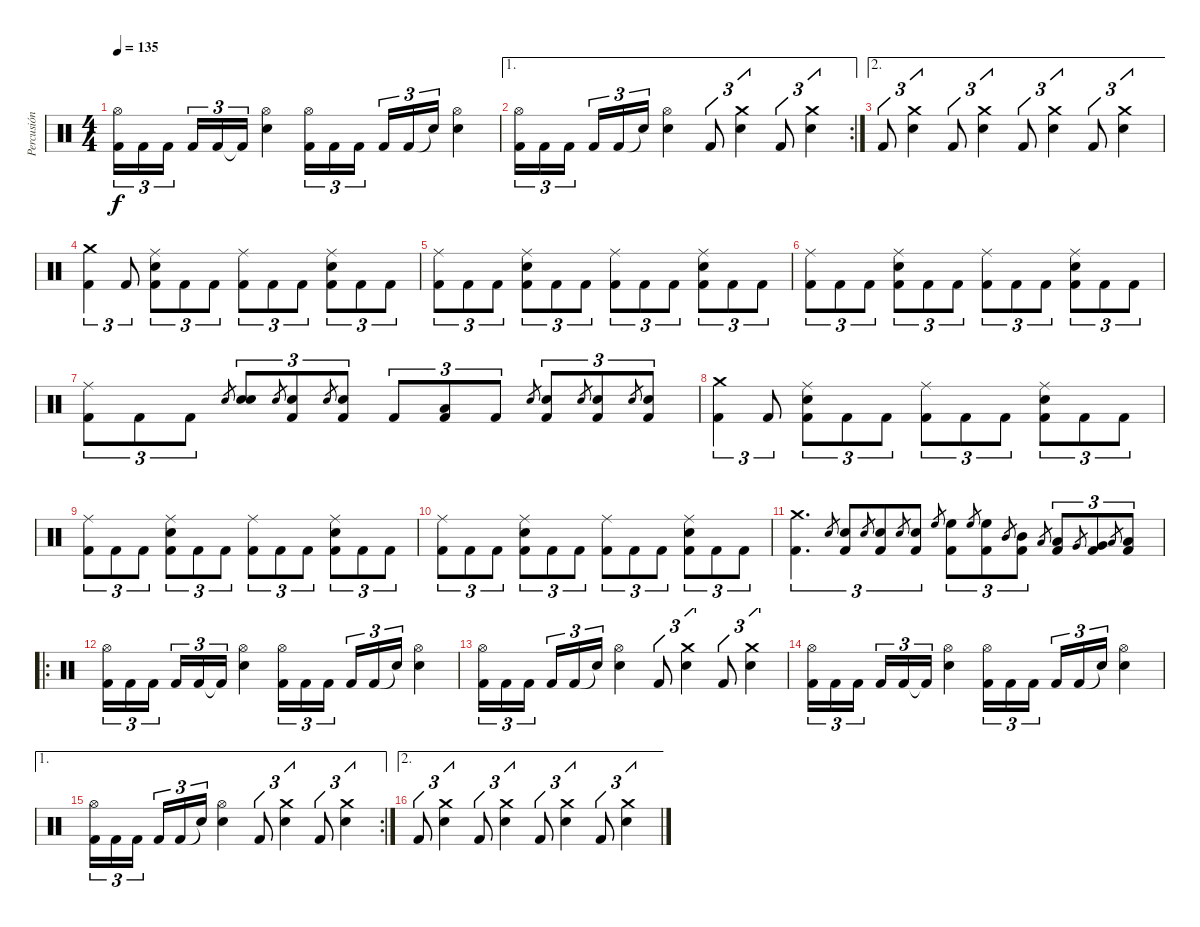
\track ("Percusión" "Percusión") {instrument percussion}
\staff {score}
\articulation defaults
\ts (4 4)
\tempo 135
\clef neutral
\ks c
("Hi-Hat (open)" "Kick (hit) 2").16{tu (3 2) dy f} "Kick (hit) 2".16{tu (3 2)} "Kick (hit) 2".16{tu (3 2) beam splitsecondary} "Kick (hit) 2".16{tu (3 2)} "Kick (hit) 2".16{tu (3 2)} "Kick (hit) 2"{t}.16{tu (3 2)} ("Hi-Hat (open)" "Snare (hit) 2").4 ("Hi-Hat (open)" "Kick (hit) 2").16{tu (3 2)} "Kick (hit) 2".16{tu (3 2)} "Kick (hit) 2".16{tu (3 2) beam splitsecondary} "Kick (hit) 2".16{tu (3 2)} "Kick (hit) 2".16{tu (3 2)} "Snare (hit)"{t}.16{tu (3 2)} ("Hi-Hat (open)" "Snare (hit) 2").4 |
\ae 1
\rc 2
("Hi-Hat (open)" "Kick (hit) 2").16{tu (3 2)} "Kick (hit) 2".16{tu (3 2)} "Kick (hit) 2".16{tu (3 2) beam splitsecondary} "Kick (hit) 2".16{tu (3 2)} "Kick (hit) 2".16{tu (3 2)} "Snare (hit)"{t}.16{tu (3 2)} ("Hi-Hat (open)" "Snare (hit) 2").4 "Kick (hit) 2".8{tu (3 2)} ("Crash medium (hit)" "Snare (hit) 2").4{tu (3 2)} "Kick (hit) 2".8{tu (3 2)} ("Crash medium (hit)" "Snare (hit) 2").4{tu (3 2)} |
\ae 2 "Kick (hit) 2".8{tu (3 2)}
("Crash medium (hit)" "Snare (hit) 2").4{tu (3 2)} "Kick (hit) 2".8{tu (3 2)} ("Crash medium (hit)" "Snare (hit) 2").4{tu (3 2)} "Kick (hit) 2".8{tu (3 2)} ("Crash medium (hit)" "Snare (hit) 2").4{tu (3 2)} "Kick (hit) 2".8{tu (3 2)} ("Crash medium (hit)" "Snare (hit) 2").4{tu (3 2)} |
("Crash medium (hit)" "Kick (hit) 2").4{tu (3 2)} "Kick (hit) 2".8{tu (3 2)} ("Ride (middle)" "Kick (hit) 2" "Snare (hit) 2").8{tu (3 2)} "Kick (hit) 2".8{tu (3 2)} "Kick (hit) 2".8{tu (3 2)} ("Ride (middle)" "Kick (hit) 2").8{tu (3 2)} "Kick (hit) 2".8{tu (3 2)} "Kick (hit) 2".8{tu (3 2)} ("Ride (middle)" "Kick (hit) 2" "Snare (hit) 2").8{tu (3 2)} "Kick (hit) 2".8{tu (3 2)} "Kick (hit) 2".8{tu (3 2)} |
("Ride (middle)" "Kick (hit) 2").8{tu (3 2)} "Kick (hit) 2".8{tu (3 2)} "Kick (hit) 2".8{tu (3 2)} ("Ride (middle)" "Snare (hit) 2" "Kick (hit) 2").8{tu (3 2)} "Kick (hit) 2".8{tu (3 2)} "Kick (hit) 2".8{tu (3 2)} ("Ride (middle)" "Kick (hit) 2").8{tu (3 2)} "Kick (hit) 2".8{tu (3 2)} "Kick (hit) 2".8{tu (3 2)} ("Ride (middle)" "Snare (hit) 2" "Kick (hit) 2").8{tu (3 2)} "Kick (hit) 2".8{tu (3 2)} "Kick (hit) 2".8{tu (3 2)} |
("Ride (middle)" "Kick (hit) 2").8{tu (3 2)} "Kick (hit) 2".8{tu (3 2)} "Kick (hit) 2".8{tu (3 2)} ("Ride (middle)" "Snare (hit) 2" "Kick (hit) 2").8{tu (3 2)} "Kick (hit) 2".8{tu (3 2)} "Kick (hit) 2".8{tu (3 2)} ("Ride (middle)" "Kick (hit) 2").8{tu (3 2)} "Kick (hit) 2".8{tu (3 2)} "Kick (hit) 2".8{tu (3 2)} ("Ride (middle)" "Snare (hit) 2" "Kick (hit) 2").8{tu (3 2)} "Kick (hit) 2".8{tu (3 2)} "Kick (hit) 2".8{tu (3 2)} |
("Ride (middle)" "Kick (hit) 2").8{tu (3 2)} "Kick (hit) 2".8{tu (3 2)} "Kick (hit) 2".8{tu (3 2)} "Snare (hit) 2".8{gr} ("Snare (hit) 2" "Snare (hit) 2").8{tu (3 2)} "Snare (hit) 2".8{gr} ("Snare (hit) 2" "Kick (hit) 2").8{tu (3 2)} "Snare (hit) 2".8{gr} ("Snare (hit) 2" "Kick (hit) 2").8{tu (3 2)} "Kick (hit) 2".8{tu (3 2)} ("Kick (hit) 2" "Low Tom (hit)").8{tu (3 2)} "Kick (hit) 2".8{tu (3 2)} "Snare (hit) 2".8{gr} ("Snare (hit) 2" "Kick (hit) 2").8{tu (3 2)} "Snare (hit) 2".8{gr} ("Snare (hit) 2" "Kick (hit) 2").8{tu (3 2)} "Snare (hit) 2".8{gr} ("Snare (hit) 2" "Kick (hit) 2").8{tu (3 2)} |
("Crash medium (hit)" "Kick (hit) 2").4{tu (3 2)} "Kick (hit) 2".8{tu (3 2)} ("Ride (middle)" "Kick (hit) 2" "Snare (hit) 2").8{tu (3 2)} "Kick (hit) 2".8{tu (3 2)} "Kick (hit) 2".8{tu (3 2)} ("Ride (middle)" "Kick (hit) 2").8{tu (3 2)} "Kick (hit) 2".8{tu (3 2)} "Kick (hit) 2".8{tu (3 2)} ("Ride (middle)" "Kick (hit) 2" "Snare (hit) 2").8{tu (3 2)} "Kick (hit) 2".8{tu (3 2)} "Kick (hit) 2".8{tu (3 2)} |
("Ride (middle)" "Kick (hit) 2").8{tu (3 2)} "Kick (hit) 2".8{tu (3 2)} "Kick (hit) 2".8{tu (3 2)} ("Ride (middle)" "Snare (hit) 2" "Kick (hit) 2").8{tu (3 2)} "Kick (hit) 2".8{tu (3 2)} "Kick (hit) 2".8{tu (3 2)} ("Ride (middle)" "Kick (hit) 2").8{tu (3 2)} "Kick (hit) 2".8{tu (3 2)} "Kick (hit) 2".8{tu (3 2)} ("Ride (middle)" "Snare (hit) 2" "Kick (hit) 2").8{tu (3 2)} "Kick (hit) 2".8{tu (3 2)} "Kick (hit) 2".8{tu (3 2)} |
("Ride (middle)" "Kick (hit) 2").8{tu (3 2)} "Kick (hit) 2".8{tu (3 2)} "Kick (hit) 2".8{tu (3 2)} ("Ride (middle)" "Snare (hit) 2" "Kick (hit) 2").8{tu (3 2)} "Kick (hit) 2".8{tu (3 2)} "Kick (hit) 2".8{tu (3 2)} ("Ride (middle)" "Kick (hit) 2").8{tu (3 2)} "Kick (hit) 2".8{tu (3 2)} "Kick (hit) 2".8{tu (3 2)} ("Ride (middle)" "Snare (hit) 2" "Kick (hit) 2").8{tu (3 2)} "Kick (hit) 2".8{tu (3 2)} "Kick (hit) 2".8{tu (3 2)} |
("Crash medium (hit)" "Kick (hit) 2").4{d tu (3 2)} "Snare (hit) 2".8{gr} ("Kick (hit) 2" "Snare (hit) 2").8{tu (3 2)} "Snare (hit) 2".8{gr} ("Kick (hit) 2" "Snare (hit) 2").8{tu (3 2)} "Snare (hit) 2".8{gr} ("Kick (hit) 2" "Snare (hit) 2").8{tu (3 2)} "High Floor Tom (hit)".8{gr} ("Kick (hit) 2" "High Floor Tom (hit)").8{tu (3 2)} "High Floor Tom (hit)".8{gr} ("Kick (hit) 2" "High Floor Tom (hit)").8{tu (3 2)} "Mid Tom (hit)".8{gr} ("Kick (hit) 2" "Mid Tom (hit)").8{tu (3 2)} "Low Tom (hit)".8{gr} ("Kick (hit) 2" "Low Tom (hit)").8{tu (3 2)} "Very Low Tom (hit)".8{gr} ("Kick (hit) 2" "Very Low Tom (hit)").8{tu (3 2)} "Low Floor Tom (hit)".8{gr} ("Kick (hit) 2" "Low Floor Tom (hit)").8{tu (3 2)} |
\ro
("Hi-Hat (open)" "Kick (hit) 2").16{tu (3 2)} "Kick (hit) 2".16{tu (3 2)} "Kick (hit) 2".16{tu (3 2) beam splitsecondary} "Kick (hit) 2".16{tu (3 2)} "Kick (hit) 2".16{tu (3 2)} "Kick (hit) 2"{t}.16{tu (3 2)} ("Hi-Hat (open)" "Snare (hit) 2").4 ("Hi-Hat (open)" "Kick (hit) 2").16{tu (3 2)} "Kick (hit) 2".16{tu (3 2)} "Kick (hit) 2".16{tu (3 2) beam splitsecondary} "Kick (hit) 2".16{tu (3 2)} "Kick (hit) 2".16{tu (3 2)} "Snare (hit)"{t}.16{tu (3 2)} ("Hi-Hat (open)" "Snare (hit) 2").4 |
("Hi-Hat (open)" "Kick (hit) 2").16{tu (3 2)} "Kick (hit) 2".16{tu (3 2)} "Kick (hit) 2".16{tu (3 2) beam splitsecondary} "Kick (hit) 2".16{tu (3 2)} "Kick (hit) 2".16{tu (3 2)} "Snare (hit)"{t}.16{tu (3 2)} ("Hi-Hat (open)" "Snare (hit) 2").4 "Kick (hit) 2".8{tu (3 2)} ("Crash medium (hit)" "Snare (hit) 2").4{tu (3 2)} "Kick (hit) 2".8{tu (3 2)} ("Crash medium (hit)" "Snare (hit) 2").4{tu (3 2)} |
("Hi-Hat (open)" "Kick (hit) 2").16{tu (3 2)} "Kick (hit) 2".16{tu (3 2)} "Kick (hit) 2".16{tu (3 2) beam splitsecondary} "Kick (hit) 2".16{tu (3 2)} "Kick (hit) 2".16{tu (3 2)} "Kick (hit) 2"{t}.16{tu (3 2)} ("Hi-Hat (open)" "Snare (hit) 2").4 ("Hi-Hat (open)" "Kick (hit) 2").16{tu (3 2)} "Kick (hit) 2".16{tu (3 2)} "Kick (hit) 2".16{tu (3 2) beam splitsecondary} "Kick (hit) 2".16{tu (3 2)} "Kick (hit) 2".16{tu (3 2)} "Snare (hit)"{t}.16{tu (3 2)} ("Hi-Hat (open)" "Snare (hit) 2").4 |
\ae 1
\rc 2
("Hi-Hat (open)" "Kick (hit) 2").16{tu (3 2)} "Kick (hit) 2".16{tu (3 2)} "Kick (hit) 2".16{tu (3 2) beam splitsecondary} "Kick (hit) 2".16{tu (3 2)} "Kick (hit) 2".16{tu (3 2)} "Snare (hit)"{t}.16{tu (3 2)} ("Hi-Hat (open)" "Snare (hit) 2").4 "Kick (hit) 2".8{tu (3 2)} ("Crash medium (hit)" "Snare (hit) 2").4{tu (3 2)} "Kick (hit) 2".8{tu (3 2)} ("Crash medium (hit)" "Snare (hit) 2").4{tu (3 2)} |
\ae 2 "Kick (hit) 2".8{tu (3 2)}
("Crash medium (hit)" "Snare (hit) 2").4{tu (3 2)} "Kick (hit) 2".8{tu (3 2)} ("Crash medium (hit)" "Snare (hit) 2").4{tu (3 2)} "Kick (hit) 2".8{tu (3 2)} ("Crash medium (hit)" "Snare (hit) 2").4{tu (3 2)} "Kick (hit) 2".8{tu (3 2)} ("Crash medium (hit)" "Snare (hit) 2").4{tu (3 2)}
